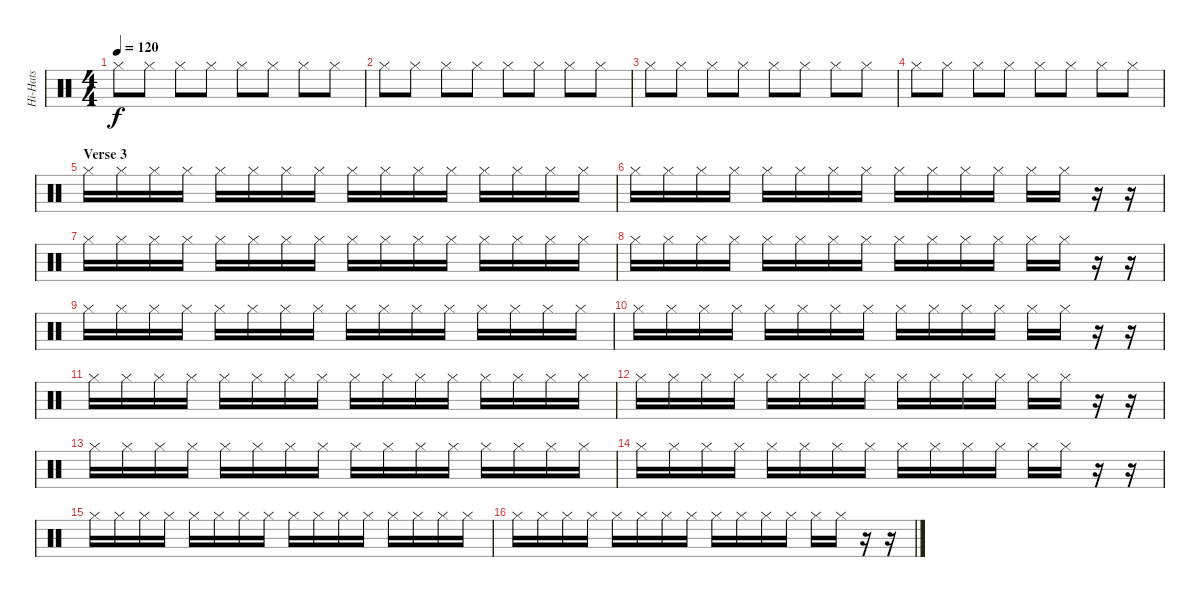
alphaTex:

\track ("Hi-Hats" "Hi-Hats") {instrument percussion}
\staff {score}
\articulation defaults
\ts (4 4)
\tempo 120
\clef neutral
\ks c "Hi-Hat (closed)".8{dy f} "Hi-Hat (closed)".8 "Hi-Hat (closed)".8 "Hi-Hat (closed)".8 "Hi-Hat (closed)".8 "Hi-Hat (closed)".8 "Hi-Hat (closed)".8 "Hi-Hat (closed)".8
|
"Hi-Hat (closed)".8 "Hi-Hat (closed)".8 "Hi-Hat (closed)".8 "Hi-Hat (closed)".8 "Hi-Hat (closed)".8 "Hi-Hat (closed)".8 "Hi-Hat (closed)".8 "Hi-Hat (closed)".8 |
"Hi-Hat (closed)".8 "Hi-Hat (closed)".8 "Hi-Hat (closed)".8 "Hi-Hat (closed)".8 "Hi-Hat (closed)".8 "Hi-Hat (closed)".8 "Hi-Hat (closed)".8 "Hi-Hat (closed)".8 |
"Hi-Hat (closed)".8 "Hi-Hat (closed)".8 "Hi-Hat (closed)".8 "Hi-Hat (closed)".8 "Hi-Hat (closed)".8 "Hi-Hat (closed)".8 "Hi-Hat (closed)".8 "Hi-Hat (closed)".8 |
\section ("" "Verse 3")
"Hi-Hat (closed)".16 "Hi-Hat (closed)".16 "Hi-Hat (closed)".16 "Hi-Hat (closed)".16 "Hi-Hat (closed)".16 "Hi-Hat (closed)".16 "Hi-Hat (closed)".16 "Hi-Hat (closed)".16 "Hi-Hat (closed)".16 "Hi-Hat (closed)".16 "Hi-Hat (closed)".16 "Hi-Hat (closed)".16 "Hi-Hat (closed)".16 "Hi-Hat (closed)".16 "Hi-Hat (closed)".16 "Hi-Hat (closed)".16 |
"Hi-Hat (closed)".16 "Hi-Hat (closed)".16 "Hi-Hat (closed)".16 "Hi-Hat (closed)".16 "Hi-Hat (closed)".16 "Hi-Hat (closed)".16 "Hi-Hat (closed)".16 "Hi-Hat (closed)".16 "Hi-Hat (closed)".16 "Hi-Hat (closed)".16 "Hi-Hat (closed)".16 "Hi-Hat (closed)".16 "Hi-Hat (closed)".16 "Hi-Hat (closed)".16 r.16 r.16 |
"Hi-Hat (closed)".16 "Hi-Hat (closed)".16 "Hi-Hat (closed)".16 "Hi-Hat (closed)".16 "Hi-Hat (closed)".16 "Hi-Hat (closed)".16 "Hi-Hat (closed)".16 "Hi-Hat (closed)".16 "Hi-Hat (closed)".16 "Hi-Hat (closed)".16 "Hi-Hat (closed)".16 "Hi-Hat (closed)".16 "Hi-Hat (closed)".16 "Hi-Hat (closed)".16 "Hi-Hat (closed)".16 "Hi-Hat (closed)".16 |
"Hi-Hat (closed)".16 "Hi-Hat (closed)".16 "Hi-Hat (closed)".16 "Hi-Hat (closed)".16 "Hi-Hat (closed)".16 "Hi-Hat (closed)".16 "Hi-Hat (closed)".16 "Hi-Hat (closed)".16 "Hi-Hat (closed)".16 "Hi-Hat (closed)".16 "Hi-Hat (closed)".16 "Hi-Hat (closed)".16 "Hi-Hat (closed)".16 "Hi-Hat (closed)".16 r.16 r.16 |
"Hi-Hat (closed)".16 "Hi-Hat (closed)".16 "Hi-Hat (closed)".16 "Hi-Hat (closed)".16 "Hi-Hat (closed)".16 "Hi-Hat (closed)".16 "Hi-Hat (closed)".16 "Hi-Hat (closed)".16 "Hi-Hat (closed)".16 "Hi-Hat (closed)".16 "Hi-Hat (closed)".16 "Hi-Hat (closed)".16 "Hi-Hat (closed)".16 "Hi-Hat (closed)".16 "Hi-Hat (closed)".16 "Hi-Hat (closed)".16 |
"Hi-Hat (closed)".16 "Hi-Hat (closed)".16 "Hi-Hat (closed)".16 "Hi-Hat (closed)".16 "Hi-Hat (closed)".16 "Hi-Hat (closed)".16 "Hi-Hat (closed)".16 "Hi-Hat (closed)".16 "Hi-Hat (closed)".16 "Hi-Hat (closed)".16 "Hi-Hat (closed)".16 "Hi-Hat (closed)".16 "Hi-Hat (closed)".16 "Hi-Hat (closed)".16 r.16 r.16 |
"Hi-Hat (closed)".16 "Hi-Hat (closed)".16 "Hi-Hat (closed)".16 "Hi-Hat (closed)".16 "Hi-Hat (closed)".16 "Hi-Hat (closed)".16 "Hi-Hat (closed)".16 "Hi-Hat (closed)".16 "Hi-Hat (closed)".16 "Hi-Hat (closed)".16 "Hi-Hat (closed)".16 "Hi-Hat (closed)".16 "Hi-Hat (closed)".16 "Hi-Hat (closed)".16 "Hi-Hat (closed)".16 "Hi-Hat (closed)".16 |
"Hi-Hat (closed)".16 "Hi-Hat (closed)".16 "Hi-Hat (closed)".16 "Hi-Hat (closed)".16 "Hi-Hat (closed)".16 "Hi-Hat (closed)".16 "Hi-Hat (closed)".16 "Hi-Hat (closed)".16 "Hi-Hat (closed)".16 "Hi-Hat (closed)".16 "Hi-Hat (closed)".16 "Hi-Hat (closed)".16 "Hi-Hat (closed)".16 "Hi-Hat (closed)".16 r.16 r.16 |
"Hi-Hat (closed)".16 "Hi-Hat (closed)".16 "Hi-Hat (closed)".16 "Hi-Hat (closed)".16 "Hi-Hat (closed)".16 "Hi-Hat (closed)".16 "Hi-Hat (closed)".16 "Hi-Hat (closed)".16 "Hi-Hat (closed)".16 "Hi-Hat (closed)".16 "Hi-Hat (closed)".16 "Hi-Hat (closed)".16 "Hi-Hat (closed)".16 "Hi-Hat (closed)".16 "Hi-Hat (closed)".16 "Hi-Hat (closed)".16 |
"Hi-Hat (closed)".16 "Hi-Hat (closed)".16 "Hi-Hat (closed)".16 "Hi-Hat (closed)".16 "Hi-Hat (closed)".16 "Hi-Hat (closed)".16 "Hi-Hat (closed)".16 "Hi-Hat (closed)".16 "Hi-Hat (closed)".16 "Hi-Hat (closed)".16 "Hi-Hat (closed)".16 "Hi-Hat (closed)".16 "Hi-Hat (closed)".16 "Hi-Hat (closed)".16 r.16 r.16 |
"Hi-Hat (closed)".16 "Hi-Hat (closed)".16 "Hi-Hat (closed)".16 "Hi-Hat (closed)".16 "Hi-Hat (closed)".16 "Hi-Hat (closed)".16 "Hi-Hat (closed)".16 "Hi-Hat (closed)".16 "Hi-Hat (closed)".16 "Hi-Hat (closed)".16 "Hi-Hat (closed)".16 "Hi-Hat (closed)".16 "Hi-Hat (closed)".16 "Hi-Hat (closed)".16 "Hi-Hat (closed)".16 "Hi-Hat (closed)".16 |
"Hi-Hat (closed)".16 "Hi-Hat (closed)".16 "Hi-Hat (closed)".16 "Hi-Hat (closed)".16 "Hi-Hat (closed)".16 "Hi-Hat (closed)".16 "Hi-Hat (closed)".16 "Hi-Hat (closed)".16 "Hi-Hat (closed)".16 "Hi-Hat (closed)".16 "Hi-Hat (closed)".16 "Hi-Hat (closed)".16 "Hi-Hat (closed)".16 "Hi-Hat (closed)".16 r.16 r.16
